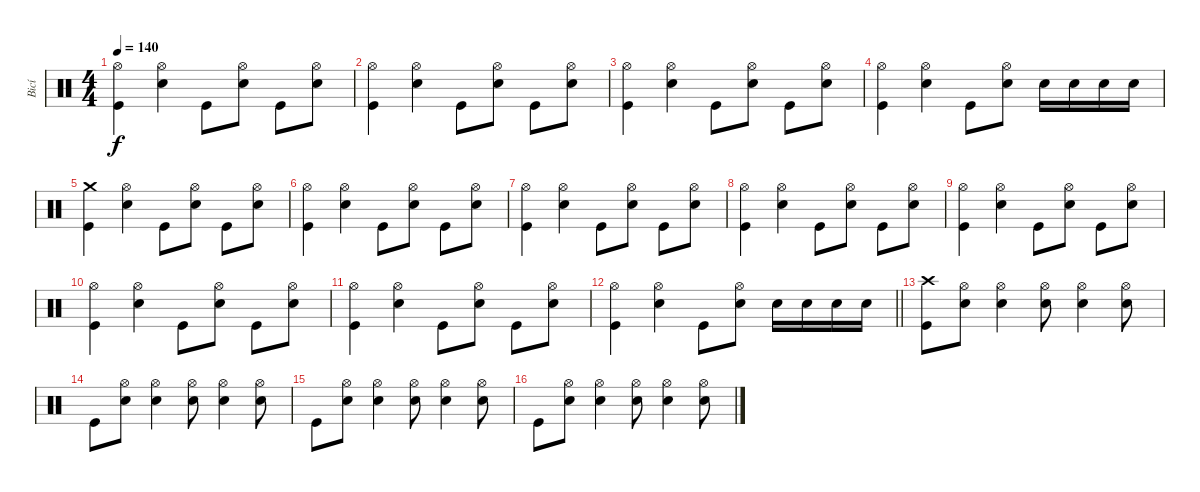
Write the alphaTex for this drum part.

\track ("Bicí" "Bicí") {instrument percussion}
\staff {score}
\articulation defaults
\ts (4 4)
\tempo 140
\clef neutral
\ks c
("Hi-Hat (open)" "Kick (hit)").4{dy f} ("Hi-Hat (open)" "Electric Snare (hit)").4 "Kick (hit)".8 ("Hi-Hat (open)" "Electric Snare (hit)").8 "Kick (hit)".8 ("Hi-Hat (open)" "Electric Snare (hit)").8 |
("Hi-Hat (open)" "Kick (hit)").4 ("Hi-Hat (open)" "Electric Snare (hit)").4 "Kick (hit)".8 ("Hi-Hat (open)" "Electric Snare (hit)").8 "Kick (hit)".8 ("Hi-Hat (open)" "Electric Snare (hit)").8 |
("Hi-Hat (open)" "Kick (hit)").4 ("Hi-Hat (open)" "Electric Snare (hit)").4 "Kick (hit)".8 ("Hi-Hat (open)" "Electric Snare (hit)").8 "Kick (hit)".8 ("Hi-Hat (open)" "Electric Snare (hit)").8 |
("Hi-Hat (open)" "Kick (hit)").4 ("Hi-Hat (open)" "Electric Snare (hit)").4 "Kick (hit)".8 ("Hi-Hat (open)" "Electric Snare (hit)").8 "Electric Snare (hit)".16 "Electric Snare (hit)".16 "Electric Snare (hit)".16 "Electric Snare (hit)".16 |
("Crash medium (hit)" "Kick (hit)").4 ("Hi-Hat (open)" "Electric Snare (hit)").4 "Kick (hit)".8 ("Hi-Hat (open)" "Electric Snare (hit)").8 "Kick (hit)".8 ("Hi-Hat (open)" "Electric Snare (hit)").8 |
("Hi-Hat (open)" "Kick (hit)").4 ("Hi-Hat (open)" "Electric Snare (hit)").4 "Kick (hit)".8 ("Hi-Hat (open)" "Electric Snare (hit)").8 "Kick (hit)".8 ("Hi-Hat (open)" "Electric Snare (hit)").8 |
("Hi-Hat (open)" "Kick (hit)").4 ("Hi-Hat (open)" "Electric Snare (hit)").4 "Kick (hit)".8 ("Hi-Hat (open)" "Electric Snare (hit)").8 "Kick (hit)".8 ("Hi-Hat (open)" "Electric Snare (hit)").8 |
("Hi-Hat (open)" "Kick (hit)").4 ("Hi-Hat (open)" "Electric Snare (hit)").4 "Kick (hit)".8 ("Hi-Hat (open)" "Electric Snare (hit)").8 "Kick (hit)".8 ("Hi-Hat (open)" "Electric Snare (hit)").8 |
("Hi-Hat (open)" "Kick (hit)").4 ("Hi-Hat (open)" "Electric Snare (hit)").4 "Kick (hit)".8 ("Hi-Hat (open)" "Electric Snare (hit)").8 "Kick (hit)".8 ("Hi-Hat (open)" "Electric Snare (hit)").8 |
("Hi-Hat (open)" "Kick (hit)").4 ("Hi-Hat (open)" "Electric Snare (hit)").4 "Kick (hit)".8 ("Hi-Hat (open)" "Electric Snare (hit)").8 "Kick (hit)".8 ("Hi-Hat (open)" "Electric Snare (hit)").8 |
("Hi-Hat (open)" "Kick (hit)").4 ("Hi-Hat (open)" "Electric Snare (hit)").4 "Kick (hit)".8 ("Hi-Hat (open)" "Electric Snare (hit)").8 "Kick (hit)".8 ("Hi-Hat (open)" "Electric Snare (hit)").8 |
\barLineRight lightlight
("Hi-Hat (open)" "Kick (hit)").4 ("Hi-Hat (open)" "Electric Snare (hit)").4 "Kick (hit)".8 ("Hi-Hat (open)" "Electric Snare (hit)").8 "Electric Snare (hit)".16 "Electric Snare (hit)".16 "Electric Snare (hit)".16 "Electric Snare (hit)".16 |
("Crash high (hit)" "Kick (hit)").8 ("Hi-Hat (open)" "Electric Snare (hit)").8 ("Hi-Hat (open)" "Electric Snare (hit)").4 ("Hi-Hat (open)" "Electric Snare (hit)").8 ("Hi-Hat (open)" "Electric Snare (hit)").4 ("Hi-Hat (open)" "Electric Snare (hit)").8 |
"Kick (hit)".8 ("Hi-Hat (open)" "Electric Snare (hit)").8 ("Hi-Hat (open)" "Electric Snare (hit)").4 ("Hi-Hat (open)" "Electric Snare (hit)").8 ("Hi-Hat (open)" "Electric Snare (hit)").4 ("Hi-Hat (open)" "Electric Snare (hit)").8 |
"Kick (hit)".8 ("Hi-Hat (open)" "Electric Snare (hit)").8 ("Hi-Hat (open)" "Electric Snare (hit)").4 ("Hi-Hat (open)" "Electric Snare (hit)").8 ("Hi-Hat (open)" "Electric Snare (hit)").4 ("Hi-Hat (open)" "Electric Snare (hit)").8 |
"Kick (hit)".8 ("Hi-Hat (open)" "Electric Snare (hit)").8 ("Hi-Hat (open)" "Electric Snare (hit)").4 ("Hi-Hat (open)" "Electric Snare (hit)").8 ("Hi-Hat (open)" "Electric Snare (hit)").4 ("Hi-Hat (open)" "Electric Snare (hit)").8
